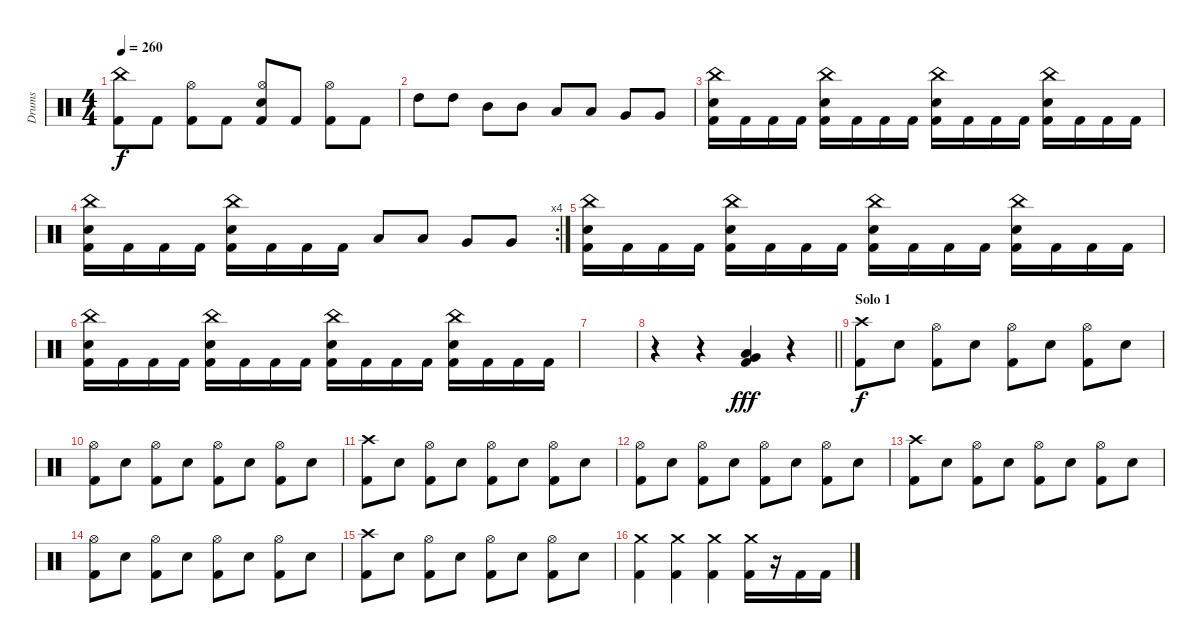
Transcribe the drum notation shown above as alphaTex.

\track ("Drums" "Drums") {instrument percussion}
\staff {score}
\articulation defaults
\ts (4 4)
\tempo 260
\clef neutral
\ks c
("China (hit)" "Kick (hit) 2").8{dy f} "Kick (hit) 2".8 ("Hi-Hat (open)" "Kick (hit) 2").8 "Kick (hit) 2".8 ("Hi-Hat (open)" "Electric Snare (hit)" "Kick (hit) 2").8 "Kick (hit) 2".8 ("Hi-Hat (open)" "Kick (hit) 2").8 "Kick (hit) 2".8 |
"High Tom (hit)".8 "High Tom (hit)".8 "Mid Tom (hit)".8 "Mid Tom (hit)".8 "Low Tom (hit)".8 "Low Tom (hit)".8 "Very Low Tom (hit)".8 "Very Low Tom (hit)".8 |
("China (hit)" "Electric Snare (hit)" "Kick (hit) 2").16 "Kick (hit) 2".16 "Kick (hit) 2".16 "Kick (hit) 2".16 ("China (hit)" "Electric Snare (hit)" "Kick (hit) 2").16 "Kick (hit) 2".16 "Kick (hit) 2".16 "Kick (hit) 2".16 ("China (hit)" "Electric Snare (hit)" "Kick (hit) 2").16 "Kick (hit) 2".16 "Kick (hit) 2".16 "Kick (hit) 2".16 ("China (hit)" "Electric Snare (hit)" "Kick (hit) 2").16 "Kick (hit) 2".16 "Kick (hit) 2".16 "Kick (hit) 2".16 |
\rc 4
("China (hit)" "Electric Snare (hit)" "Kick (hit) 2").16 "Kick (hit) 2".16 "Kick (hit) 2".16 "Kick (hit) 2".16 ("China (hit)" "Electric Snare (hit)" "Kick (hit) 2").16 "Kick (hit) 2".16 "Kick (hit) 2".16 "Kick (hit) 2".16 "Low Tom (hit)".8 "Low Tom (hit)".8 "Very Low Tom (hit)".8 "Very Low Tom (hit)".8 |
("China (hit)" "Electric Snare (hit)" "Kick (hit) 2").16 "Kick (hit) 2".16 "Kick (hit) 2".16 "Kick (hit) 2".16 ("China (hit)" "Electric Snare (hit)" "Kick (hit) 2").16 "Kick (hit) 2".16 "Kick (hit) 2".16 "Kick (hit) 2".16 ("China (hit)" "Electric Snare (hit)" "Kick (hit) 2").16 "Kick (hit) 2".16 "Kick (hit) 2".16 "Kick (hit) 2".16 ("China (hit)" "Electric Snare (hit)" "Kick (hit) 2").16 "Kick (hit) 2".16 "Kick (hit) 2".16 "Kick (hit) 2".16 |
("China (hit)" "Electric Snare (hit)" "Kick (hit) 2").16 "Kick (hit) 2".16 "Kick (hit) 2".16 "Kick (hit) 2".16 ("China (hit)" "Electric Snare (hit)" "Kick (hit) 2").16 "Kick (hit) 2".16 "Kick (hit) 2".16 "Kick (hit) 2".16 ("China (hit)" "Electric Snare (hit)" "Kick (hit) 2").16 "Kick (hit) 2".16 "Kick (hit) 2".16 "Kick (hit) 2".16 ("China (hit)" "Electric Snare (hit)" "Kick (hit) 2").16 "Kick (hit) 2".16 "Kick (hit) 2".16 "Kick (hit) 2".16 |
|
\barLineRight lightlight
r.4 r.4 ("Very Low Tom (hit)" "Low Tom (hit)" "Kick (hit) 2").4{dy fff} r.4 |
\section ("" "Solo 1")
("Crash high (hit)" "Kick (hit) 2").8{dy f} "Electric Snare (hit)".8 ("Hi-Hat (open)" "Kick (hit) 2").8 "Electric Snare (hit)".8 ("Hi-Hat (open)" "Kick (hit) 2").8 "Electric Snare (hit)".8 ("Hi-Hat (open)" "Kick (hit) 2").8 "Electric Snare (hit)".8 |
("Hi-Hat (open)" "Kick (hit) 2").8 "Electric Snare (hit)".8 ("Hi-Hat (open)" "Kick (hit) 2").8 "Electric Snare (hit)".8 ("Hi-Hat (open)" "Kick (hit) 2").8 "Electric Snare (hit)".8 ("Hi-Hat (open)" "Kick (hit) 2").8 "Electric Snare (hit)".8 |
("Crash high (hit)" "Kick (hit) 2").8 "Electric Snare (hit)".8 ("Hi-Hat (open)" "Kick (hit) 2").8 "Electric Snare (hit)".8 ("Hi-Hat (open)" "Kick (hit) 2").8 "Electric Snare (hit)".8 ("Hi-Hat (open)" "Kick (hit) 2").8 "Electric Snare (hit)".8 |
("Hi-Hat (open)" "Kick (hit) 2").8 "Electric Snare (hit)".8 ("Hi-Hat (open)" "Kick (hit) 2").8 "Electric Snare (hit)".8 ("Hi-Hat (open)" "Kick (hit) 2").8 "Electric Snare (hit)".8 ("Hi-Hat (open)" "Kick (hit) 2").8 "Electric Snare (hit)".8 |
("Crash high (hit)" "Kick (hit) 2").8 "Electric Snare (hit)".8 ("Hi-Hat (open)" "Kick (hit) 2").8 "Electric Snare (hit)".8 ("Hi-Hat (open)" "Kick (hit) 2").8 "Electric Snare (hit)".8 ("Hi-Hat (open)" "Kick (hit) 2").8 "Electric Snare (hit)".8 |
("Hi-Hat (open)" "Kick (hit) 2").8 "Electric Snare (hit)".8 ("Hi-Hat (open)" "Kick (hit) 2").8 "Electric Snare (hit)".8 ("Hi-Hat (open)" "Kick (hit) 2").8 "Electric Snare (hit)".8 ("Hi-Hat (open)" "Kick (hit) 2").8 "Electric Snare (hit)".8 |
("Crash high (hit)" "Kick (hit) 2").8 "Electric Snare (hit)".8 ("Hi-Hat (open)" "Kick (hit) 2").8 "Electric Snare (hit)".8 ("Hi-Hat (open)" "Kick (hit) 2").8 "Electric Snare (hit)".8 ("Hi-Hat (open)" "Kick (hit) 2").8 "Electric Snare (hit)".8 |
("Crash medium (hit)" "Kick (hit) 2").4 ("Crash medium (hit)" "Kick (hit) 2").4 ("Crash medium (hit)" "Kick (hit) 2").4 ("Crash medium (hit)" "Kick (hit) 2").16 r.16 "Kick (hit) 2".16 "Kick (hit) 2".16
